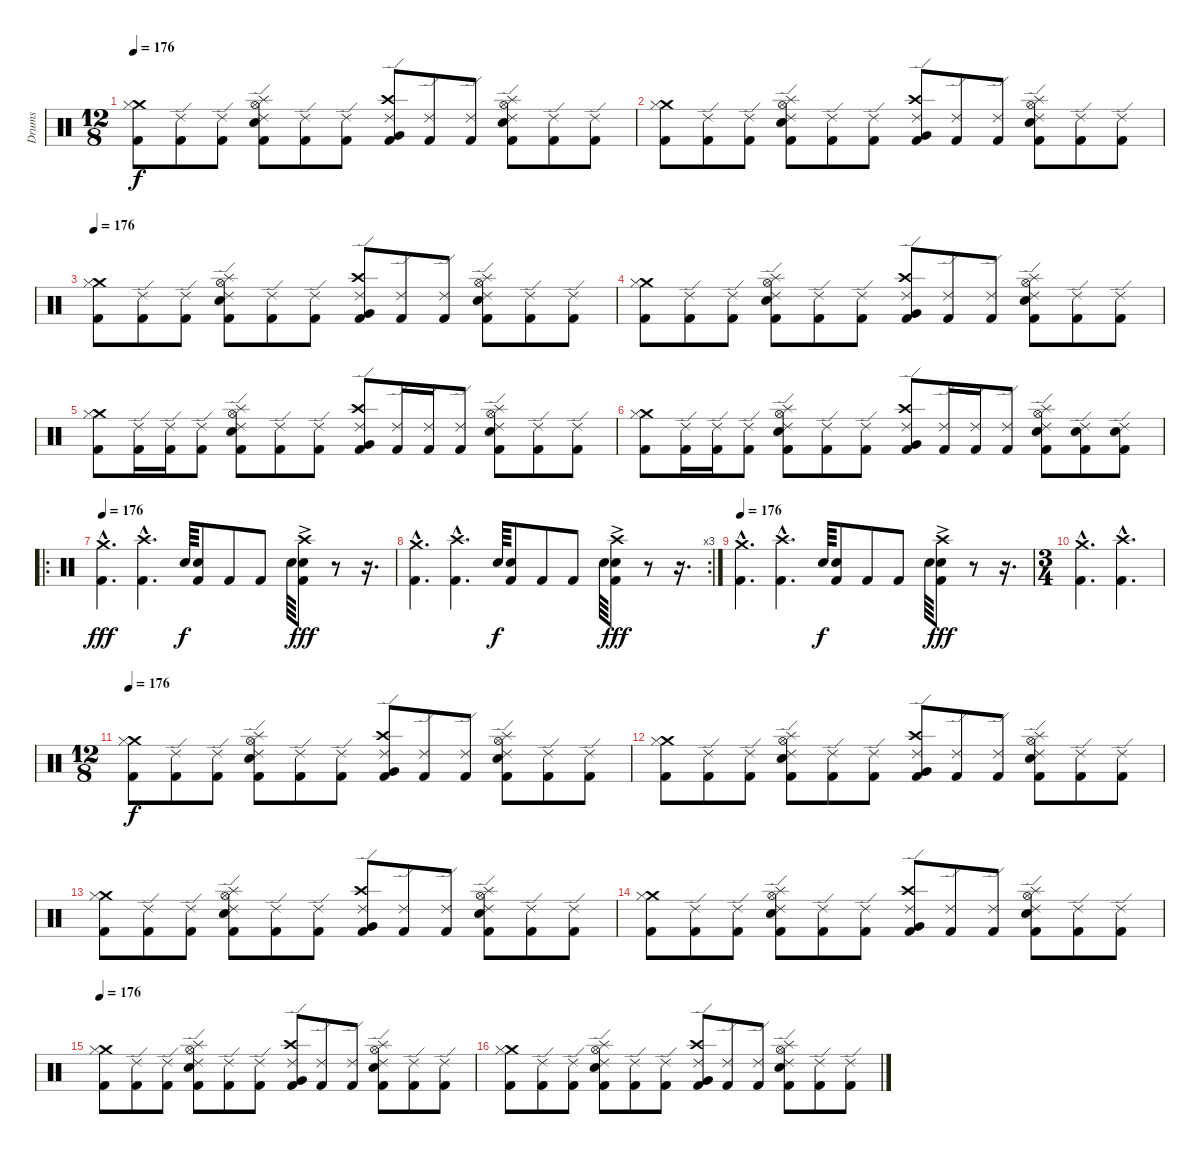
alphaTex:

\track ("Drums" "Drums") {instrument percussion}
\staff {score}
\articulation defaults
\ts (12 8)
\tempo 176
\clef neutral
\ks c
("Crash medium (hit)" "Hi-Hat (closed)" "Kick (hit) 2").8{dy f} ("Ride (edge) 2" "Kick (hit) 2").8 ("Ride (edge) 2" "Kick (hit) 2").8 ("Splash (hit)" "Snare (hit) 2" "Hi-Hat (open)" "Ride (edge) 2" "Kick (hit) 2").8 ("Ride (edge) 2" "Kick (hit) 2").8 ("Ride (edge) 2" "Kick (hit) 2").8 ("Crash high (hit)" "Very Low Tom (hit)" "Ride (edge) 2" "Kick (hit) 2").8 ("Ride (edge) 2" "Kick (hit) 2").8 ("Ride (edge) 2" "Kick (hit) 2").8 ("Splash (hit)" "Snare (hit) 2" "Hi-Hat (open)" "Ride (edge) 2" "Kick (hit) 2").8 ("Ride (edge) 2" "Kick (hit) 2").8 ("Ride (edge) 2" "Kick (hit) 2").8 |
("Crash medium (hit)" "Hi-Hat (closed)" "Kick (hit) 2").8 ("Ride (edge) 2" "Kick (hit) 2").8 ("Ride (edge) 2" "Kick (hit) 2").8 ("Splash (hit)" "Snare (hit) 2" "Hi-Hat (open)" "Ride (edge) 2" "Kick (hit) 2").8 ("Ride (edge) 2" "Kick (hit) 2").8 ("Ride (edge) 2" "Kick (hit) 2").8 ("Crash high (hit)" "Very Low Tom (hit)" "Ride (edge) 2" "Kick (hit) 2").8 ("Ride (edge) 2" "Kick (hit) 2").8 ("Ride (edge) 2" "Kick (hit) 2").8 ("Splash (hit)" "Snare (hit) 2" "Hi-Hat (open)" "Ride (edge) 2" "Kick (hit) 2").8 ("Ride (edge) 2" "Kick (hit) 2").8 ("Ride (edge) 2" "Kick (hit) 2").8 |
\tempo 176
("Crash medium (hit)" "Hi-Hat (closed)" "Kick (hit) 2").8 ("Ride (edge) 2" "Kick (hit) 2").8 ("Ride (edge) 2" "Kick (hit) 2").8 ("Splash (hit)" "Snare (hit) 2" "Hi-Hat (open)" "Ride (edge) 2" "Kick (hit) 2").8 ("Ride (edge) 2" "Kick (hit) 2").8 ("Ride (edge) 2" "Kick (hit) 2").8 ("Crash high (hit)" "Very Low Tom (hit)" "Ride (edge) 2" "Kick (hit) 2").8 ("Ride (edge) 2" "Kick (hit) 2").8 ("Ride (edge) 2" "Kick (hit) 2").8 ("Splash (hit)" "Snare (hit) 2" "Hi-Hat (open)" "Ride (edge) 2" "Kick (hit) 2").8 ("Ride (edge) 2" "Kick (hit) 2").8 ("Ride (edge) 2" "Kick (hit) 2").8 |
("Crash medium (hit)" "Hi-Hat (closed)" "Kick (hit) 2").8 ("Ride (edge) 2" "Kick (hit) 2").8 ("Ride (edge) 2" "Kick (hit) 2").8 ("Splash (hit)" "Snare (hit) 2" "Hi-Hat (open)" "Ride (edge) 2" "Kick (hit) 2").8 ("Ride (edge) 2" "Kick (hit) 2").8 ("Ride (edge) 2" "Kick (hit) 2").8 ("Crash high (hit)" "Very Low Tom (hit)" "Ride (edge) 2" "Kick (hit) 2").8 ("Ride (edge) 2" "Kick (hit) 2").8 ("Ride (edge) 2" "Kick (hit) 2").8 ("Splash (hit)" "Snare (hit) 2" "Hi-Hat (open)" "Ride (edge) 2" "Kick (hit) 2").8 ("Ride (edge) 2" "Kick (hit) 2").8 ("Ride (edge) 2" "Kick (hit) 2").8 |
("Crash medium (hit)" "Hi-Hat (closed)" "Kick (hit) 2").8 ("Ride (edge) 2" "Kick (hit) 2").16 ("Ride (edge) 2" "Kick (hit) 2").16 ("Ride (edge) 2" "Kick (hit) 2").8 ("Splash (hit)" "Snare (hit) 2" "Hi-Hat (open)" "Ride (edge) 2" "Kick (hit) 2").8 ("Ride (edge) 2" "Kick (hit) 2").8 ("Ride (edge) 2" "Kick (hit) 2").8 ("Crash high (hit)" "Very Low Tom (hit)" "Ride (edge) 2" "Kick (hit) 2").8 ("Ride (edge) 2" "Kick (hit) 2").16 ("Ride (edge) 2" "Kick (hit) 2").16 ("Ride (edge) 2" "Kick (hit) 2").8 ("Splash (hit)" "Snare (hit) 2" "Hi-Hat (open)" "Ride (edge) 2" "Kick (hit) 2").8 ("Ride (edge) 2" "Kick (hit) 2").8 ("Ride (edge) 2" "Kick (hit) 2").8 |
("Crash medium (hit)" "Hi-Hat (closed)" "Kick (hit) 2").8 ("Ride (edge) 2" "Kick (hit) 2").16 ("Ride (edge) 2" "Kick (hit) 2").16 ("Ride (edge) 2" "Kick (hit) 2").8 ("Splash (hit)" "Snare (hit) 2" "Hi-Hat (open)" "Ride (edge) 2" "Kick (hit) 2").8 ("Ride (edge) 2" "Kick (hit) 2").8 ("Ride (edge) 2" "Kick (hit) 2").8 ("Crash high (hit)" "Very Low Tom (hit)" "Ride (edge) 2" "Kick (hit) 2").8 ("Ride (edge) 2" "Kick (hit) 2").16 ("Ride (edge) 2" "Kick (hit) 2").16 ("Ride (edge) 2" "Kick (hit) 2").8 ("Splash (hit)" "Snare (hit) 2" "Hi-Hat (open)" "Ride (edge) 2" "Kick (hit) 2").8 ("Snare (hit) 2" "Ride (edge) 2" "Kick (hit) 2").8 ("Snare (hit) 2" "Ride (edge) 2" "Kick (hit) 2").8 |
\ro
\tempo 176
("Crash medium (hit)"{hac} "Kick (hit) 2"{hac}).4{d dy fff} ("Crash high (hit)"{hac} "Kick (hit) 2"{hac}).4{d} "Snare (hit) 2".64{dy f} ("Snare (hit) 2" "Kick (hit) 2").8 "Kick (hit) 2".8 "Kick (hit) 2".8 "Snare (hit) 2".64 ("Crash high (hit)"{ac} "Snare (hit) 2" "Kick (hit) 2").8{dy fff} r.8 r.16{d} |
\rc 3
("Crash medium (hit)"{hac} "Kick (hit) 2"{hac}).4{d} ("Crash high (hit)"{hac} "Kick (hit) 2"{hac}).4{d} "Snare (hit) 2".64{dy f} ("Snare (hit) 2" "Kick (hit) 2").8 "Kick (hit) 2".8 "Kick (hit) 2".8 "Snare (hit) 2".64 ("Crash high (hit)"{ac} "Snare (hit) 2" "Kick (hit) 2").8{dy fff} r.8 r.16{d} |
\tempo 176
("Crash medium (hit)"{hac} "Kick (hit) 2"{hac}).4{d} ("Crash high (hit)"{hac} "Kick (hit) 2"{hac}).4{d} "Snare (hit) 2".64{dy f} ("Snare (hit) 2" "Kick (hit) 2").8 "Kick (hit) 2".8 "Kick (hit) 2".8 "Snare (hit) 2".64 ("Crash high (hit)"{ac} "Snare (hit) 2" "Kick (hit) 2").8{dy fff} r.8 r.16{d} |
\ts (3 4)
("Crash medium (hit)"{hac} "Kick (hit) 2"{hac}).4{d} ("Crash high (hit)"{hac} "Kick (hit) 2"{hac}).4{d} |
\ts (12 8)
\tempo 176
("Crash medium (hit)" "Hi-Hat (closed)" "Kick (hit) 2").8{dy f} ("Ride (edge) 2" "Kick (hit) 2").8 ("Ride (edge) 2" "Kick (hit) 2").8 ("Splash (hit)" "Snare (hit) 2" "Hi-Hat (open)" "Ride (edge) 2" "Kick (hit) 2").8 ("Ride (edge) 2" "Kick (hit) 2").8 ("Ride (edge) 2" "Kick (hit) 2").8 ("Crash high (hit)" "Very Low Tom (hit)" "Ride (edge) 2" "Kick (hit) 2").8 ("Ride (edge) 2" "Kick (hit) 2").8 ("Ride (edge) 2" "Kick (hit) 2").8 ("Splash (hit)" "Snare (hit) 2" "Hi-Hat (open)" "Ride (edge) 2" "Kick (hit) 2").8 ("Ride (edge) 2" "Kick (hit) 2").8 ("Ride (edge) 2" "Kick (hit) 2").8 |
("Crash medium (hit)" "Hi-Hat (closed)" "Kick (hit) 2").8 ("Ride (edge) 2" "Kick (hit) 2").8 ("Ride (edge) 2" "Kick (hit) 2").8 ("Splash (hit)" "Snare (hit) 2" "Hi-Hat (open)" "Ride (edge) 2" "Kick (hit) 2").8 ("Ride (edge) 2" "Kick (hit) 2").8 ("Ride (edge) 2" "Kick (hit) 2").8 ("Crash high (hit)" "Very Low Tom (hit)" "Ride (edge) 2" "Kick (hit) 2").8 ("Ride (edge) 2" "Kick (hit) 2").8 ("Ride (edge) 2" "Kick (hit) 2").8 ("Splash (hit)" "Snare (hit) 2" "Hi-Hat (open)" "Ride (edge) 2" "Kick (hit) 2").8 ("Ride (edge) 2" "Kick (hit) 2").8 ("Ride (edge) 2" "Kick (hit) 2").8 |
("Crash medium (hit)" "Hi-Hat (closed)" "Kick (hit) 2").8 ("Ride (edge) 2" "Kick (hit) 2").8 ("Ride (edge) 2" "Kick (hit) 2").8 ("Splash (hit)" "Snare (hit) 2" "Hi-Hat (open)" "Ride (edge) 2" "Kick (hit) 2").8 ("Ride (edge) 2" "Kick (hit) 2").8 ("Ride (edge) 2" "Kick (hit) 2").8 ("Crash high (hit)" "Very Low Tom (hit)" "Ride (edge) 2" "Kick (hit) 2").8 ("Ride (edge) 2" "Kick (hit) 2").8 ("Ride (edge) 2" "Kick (hit) 2").8 ("Splash (hit)" "Snare (hit) 2" "Hi-Hat (open)" "Ride (edge) 2" "Kick (hit) 2").8 ("Ride (edge) 2" "Kick (hit) 2").8 ("Ride (edge) 2" "Kick (hit) 2").8 |
("Crash medium (hit)" "Hi-Hat (closed)" "Kick (hit) 2").8 ("Ride (edge) 2" "Kick (hit) 2").8 ("Ride (edge) 2" "Kick (hit) 2").8 ("Splash (hit)" "Snare (hit) 2" "Hi-Hat (open)" "Ride (edge) 2" "Kick (hit) 2").8 ("Ride (edge) 2" "Kick (hit) 2").8 ("Ride (edge) 2" "Kick (hit) 2").8 ("Crash high (hit)" "Very Low Tom (hit)" "Ride (edge) 2" "Kick (hit) 2").8 ("Ride (edge) 2" "Kick (hit) 2").8 ("Ride (edge) 2" "Kick (hit) 2").8 ("Splash (hit)" "Snare (hit) 2" "Hi-Hat (open)" "Ride (edge) 2" "Kick (hit) 2").8 ("Ride (edge) 2" "Kick (hit) 2").8 ("Ride (edge) 2" "Kick (hit) 2").8 |
\tempo 176
("Crash medium (hit)" "Hi-Hat (closed)" "Kick (hit) 2").8 ("Ride (edge) 2" "Kick (hit) 2").8 ("Ride (edge) 2" "Kick (hit) 2").8 ("Splash (hit)" "Snare (hit) 2" "Hi-Hat (open)" "Ride (edge) 2" "Kick (hit) 2").8 ("Ride (edge) 2" "Kick (hit) 2").8 ("Ride (edge) 2" "Kick (hit) 2").8 ("Crash high (hit)" "Very Low Tom (hit)" "Ride (edge) 2" "Kick (hit) 2").8 ("Ride (edge) 2" "Kick (hit) 2").8 ("Ride (edge) 2" "Kick (hit) 2").8 ("Splash (hit)" "Snare (hit) 2" "Hi-Hat (open)" "Ride (edge) 2" "Kick (hit) 2").8 ("Ride (edge) 2" "Kick (hit) 2").8 ("Ride (edge) 2" "Kick (hit) 2").8 |
("Crash medium (hit)" "Hi-Hat (closed)" "Kick (hit) 2").8 ("Ride (edge) 2" "Kick (hit) 2").8 ("Ride (edge) 2" "Kick (hit) 2").8 ("Splash (hit)" "Snare (hit) 2" "Hi-Hat (open)" "Ride (edge) 2" "Kick (hit) 2").8 ("Ride (edge) 2" "Kick (hit) 2").8 ("Ride (edge) 2" "Kick (hit) 2").8 ("Crash high (hit)" "Very Low Tom (hit)" "Ride (edge) 2" "Kick (hit) 2").8 ("Ride (edge) 2" "Kick (hit) 2").8 ("Ride (edge) 2" "Kick (hit) 2").8 ("Splash (hit)" "Snare (hit) 2" "Hi-Hat (open)" "Ride (edge) 2" "Kick (hit) 2").8 ("Ride (edge) 2" "Kick (hit) 2").8 ("Ride (edge) 2" "Kick (hit) 2").8
